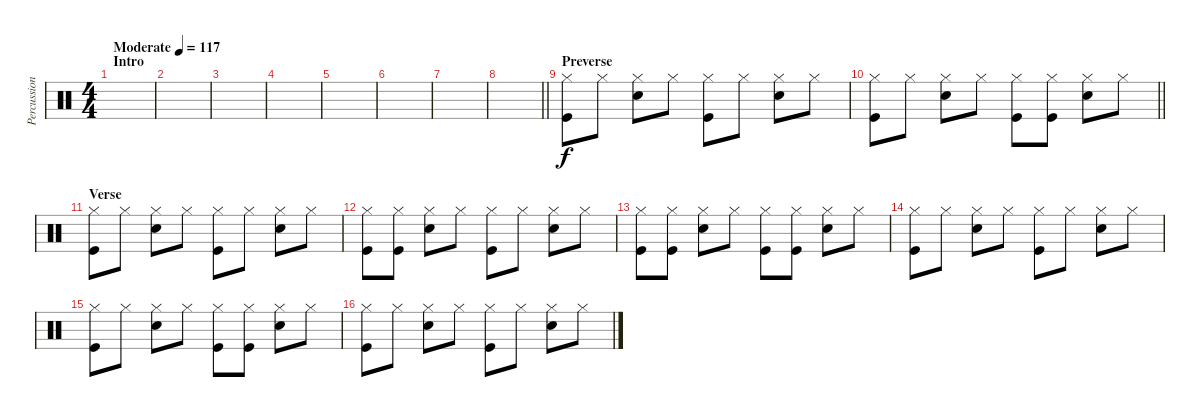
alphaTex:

\track ("Percussion" "Percussion") {instrument percussion}
\staff
\articulation defaults
\ts (4 4)
\section ("" "Intro")
\tempo (117 "Moderate")
\clef neutral
\ks c
|
|
|
|
|
|
|
\barLineRight lightlight
|
\section ("" "Preverse")
("Hi-Hat (closed)" "Kick (hit)").8 "Hi-Hat (closed)".8 ("Hi-Hat (closed)" "Snare (hit) 2").8 "Hi-Hat (closed)".8 ("Hi-Hat (closed)" "Kick (hit)").8 "Hi-Hat (closed)".8 ("Hi-Hat (closed)" "Snare (hit) 2").8 "Hi-Hat (closed)".8 |
\barLineRight lightlight
("Hi-Hat (closed)" "Kick (hit)").8 "Hi-Hat (closed)".8 ("Hi-Hat (closed)" "Snare (hit) 2").8 "Hi-Hat (closed)".8 ("Hi-Hat (closed)" "Kick (hit)").8 ("Hi-Hat (closed)" "Kick (hit)").8 ("Hi-Hat (closed)" "Snare (hit) 2").8 "Hi-Hat (closed)".8 |
\section ("" "Verse")
("Hi-Hat (closed)" "Kick (hit)").8 "Hi-Hat (closed)".8 ("Hi-Hat (closed)" "Snare (hit) 2").8 "Hi-Hat (closed)".8 ("Hi-Hat (closed)" "Kick (hit)").8 "Hi-Hat (closed)".8 ("Hi-Hat (closed)" "Snare (hit) 2").8 "Hi-Hat (closed)".8 |
("Hi-Hat (closed)" "Kick (hit)").8 ("Hi-Hat (closed)" "Kick (hit)").8 ("Hi-Hat (closed)" "Snare (hit) 2").8 "Hi-Hat (closed)".8 ("Hi-Hat (closed)" "Kick (hit)").8 "Hi-Hat (closed)".8 ("Hi-Hat (closed)" "Snare (hit) 2").8 "Hi-Hat (closed)".8 |
("Hi-Hat (closed)" "Kick (hit)").8 ("Hi-Hat (closed)" "Kick (hit)").8 ("Hi-Hat (closed)" "Snare (hit) 2").8 "Hi-Hat (closed)".8 ("Hi-Hat (closed)" "Kick (hit)").8 ("Hi-Hat (closed)" "Kick (hit)").8 ("Hi-Hat (closed)" "Snare (hit) 2").8 "Hi-Hat (closed)".8 |
("Hi-Hat (closed)" "Kick (hit)").8 "Hi-Hat (closed)".8 ("Hi-Hat (closed)" "Snare (hit) 2").8 "Hi-Hat (closed)".8 ("Hi-Hat (closed)" "Kick (hit)").8 "Hi-Hat (closed)".8 ("Hi-Hat (closed)" "Snare (hit) 2").8 "Hi-Hat (closed)".8 |
("Hi-Hat (closed)" "Kick (hit)").8 "Hi-Hat (closed)".8 ("Hi-Hat (closed)" "Snare (hit) 2").8 "Hi-Hat (closed)".8 ("Hi-Hat (closed)" "Kick (hit)").8 ("Hi-Hat (closed)" "Kick (hit)").8 ("Hi-Hat (closed)" "Snare (hit) 2").8 "Hi-Hat (closed)".8 |
("Hi-Hat (closed)" "Kick (hit)").8 "Hi-Hat (closed)".8 ("Hi-Hat (closed)" "Snare (hit) 2").8 "Hi-Hat (closed)".8 ("Hi-Hat (closed)" "Kick (hit)").8 "Hi-Hat (closed)".8 ("Hi-Hat (closed)" "Snare (hit) 2").8 "Hi-Hat (closed)".8
